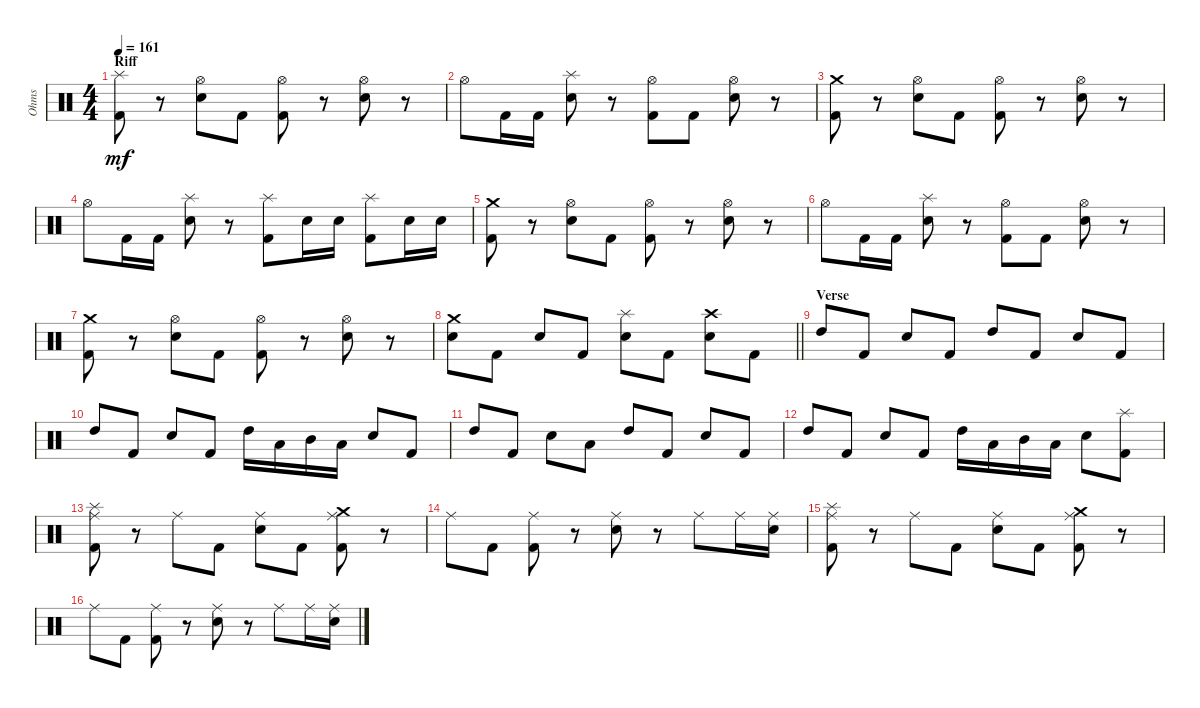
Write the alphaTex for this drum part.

\track ("Ohms" "Ohms") {instrument percussion}
\staff {score}
\articulation defaults
\ts (4 4)
\section ("" "Riff")
\tempo 161
\clef neutral
\ks c
("Splash (hit)" "Kick (hit) 2").8{dy mf} r.8 ("Hi-Hat (open)" "Snare (hit) 2").8 "Kick (hit) 2".8 ("Hi-Hat (open)" "Kick (hit) 2").8 r.8 ("Hi-Hat (open)" "Snare (hit) 2").8 r.8 |
"Hi-Hat (open)".8 "Kick (hit) 2".16 "Kick (hit) 2".16 ("Splash (hit)" "Snare (hit) 2").8 r.8 ("Hi-Hat (open)" "Kick (hit) 2").8 "Kick (hit) 2".8 ("Hi-Hat (open)" "Snare (hit) 2").8 r.8 |
("Crash medium (hit)" "Kick (hit) 2").8 r.8 ("Hi-Hat (open)" "Snare (hit) 2").8 "Kick (hit) 2".8 ("Hi-Hat (open)" "Kick (hit) 2").8 r.8 ("Hi-Hat (open)" "Snare (hit) 2").8 r.8 |
"Hi-Hat (open)".8 "Kick (hit) 2".16 "Kick (hit) 2".16 ("Splash (hit)" "Snare (hit) 2").8 r.8 ("Splash (hit)" "Kick (hit) 2").8 "Snare (hit) 2".16 "Snare (hit) 2".16 ("Splash (hit)" "Kick (hit) 2").8 "Snare (hit) 2".16 "Snare (hit) 2".16 |
("Crash medium (hit)" "Kick (hit) 2").8 r.8 ("Hi-Hat (open)" "Snare (hit) 2").8 "Kick (hit) 2".8 ("Hi-Hat (open)" "Kick (hit) 2").8 r.8 ("Hi-Hat (open)" "Snare (hit) 2").8 r.8 |
"Hi-Hat (open)".8 "Kick (hit) 2".16 "Kick (hit) 2".16 ("Splash (hit)" "Snare (hit) 2").8 r.8 ("Hi-Hat (open)" "Kick (hit) 2").8 "Kick (hit) 2".8 ("Hi-Hat (open)" "Snare (hit) 2").8 r.8 |
("Crash medium (hit)" "Kick (hit) 2").8 r.8 ("Hi-Hat (open)" "Snare (hit) 2").8 "Kick (hit) 2".8 ("Hi-Hat (open)" "Kick (hit) 2").8 r.8 ("Hi-Hat (open)" "Snare (hit) 2").8 r.8 |
\barLineRight lightlight
("Crash medium (hit)" "Snare (hit) 2").8 "Kick (hit) 2".8 "Snare (hit) 2".8 "Kick (hit) 2".8 ("Splash (hit)" "Snare (hit) 2").8 "Kick (hit) 2".8 ("Crash high (hit)" "Snare (hit) 2").8 "Kick (hit) 2".8 |
\section ("" "Verse")
"High Tom (hit)".8 "Kick (hit) 2".8 "Snare (hit) 2".8 "Kick (hit) 2".8 "High Tom (hit)".8 "Kick (hit) 2".8 "Snare (hit) 2".8 "Kick (hit) 2".8 |
"High Tom (hit)".8 "Kick (hit) 2".8 "Snare (hit) 2".8 "Kick (hit) 2".8 "High Tom (hit)".16 "Low Tom (hit)".16 "Mid Tom (hit)".16 "Low Tom (hit)".16 "Snare (hit) 2".8 "Kick (hit) 2".8 |
"High Tom (hit)".8 "Kick (hit) 2".8 "Snare (hit) 2".8 "Low Tom (hit)".8 "High Tom (hit)".8 "Kick (hit) 2".8 "Snare (hit) 2".8 "Kick (hit) 2".8 |
"High Tom (hit)".8 "Kick (hit) 2".8 "Snare (hit) 2".8 "Kick (hit) 2".8 "High Tom (hit)".16 "Low Tom (hit)".16 "Mid Tom (hit)".16 "Low Tom (hit)".16 "Snare (hit) 2".8 ("Splash (hit)" "Kick (hit) 2").8 |
("Ride (middle)" "Splash (hit)" "Kick (hit) 2").8 r.8 "Ride (middle)".8 "Kick (hit) 2".8 ("Ride (middle)" "Snare (hit) 2").8 "Kick (hit) 2".8 ("Ride (middle)" "Crash medium (hit)" "Kick (hit) 2").8 r.8 |
"Ride (middle)".8 "Kick (hit) 2".8 ("Ride (middle)" "Kick (hit) 2").8 r.8 ("Ride (middle)" "Snare (hit) 2").8 r.8 "Ride (middle)".8 "Ride (middle)".16 ("Ride (middle)" "Snare (hit) 2").16 |
("Ride (middle)" "Splash (hit)" "Kick (hit) 2").8 r.8 "Ride (middle)".8 "Kick (hit) 2".8 ("Ride (middle)" "Snare (hit) 2").8 "Kick (hit) 2".8 ("Ride (middle)" "Crash medium (hit)" "Kick (hit) 2").8 r.8 |
"Ride (middle)".8 "Kick (hit) 2".8 ("Ride (middle)" "Kick (hit) 2").8 r.8 ("Ride (middle)" "Snare (hit) 2").8 r.8 "Ride (middle)".8 "Ride (middle)".16 ("Ride (middle)" "Snare (hit) 2").16
